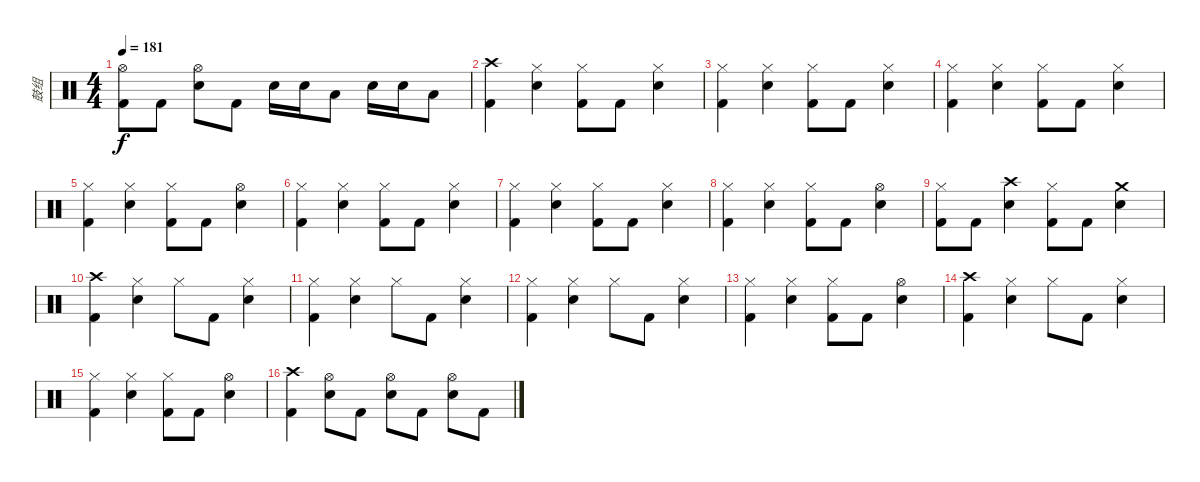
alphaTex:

\track ("鼓组" "鼓组") {instrument percussion}
\staff {score}
\articulation defaults
\ts (4 4)
\tempo 181
\clef neutral
\ks c
("Hi-Hat (open)" "Kick (hit) 2").8{dy f} "Kick (hit) 2".8 ("Hi-Hat (open)" "Snare (hit) 2").8 "Kick (hit) 2".8 "Snare (hit) 2".16 "Snare (hit) 2".16 "Low Tom (hit)".8 "Snare (hit) 2".16 "Snare (hit) 2".16 "Low Floor Tom (hit)".8 |
("Crash high (hit)" "Kick (hit) 2").4 ("Hi-Hat (closed)" "Snare (hit) 2").4 ("Hi-Hat (closed)" "Kick (hit) 2").8 "Kick (hit) 2".8 ("Hi-Hat (closed)" "Snare (hit) 2").4 |
("Hi-Hat (closed)" "Kick (hit) 2").4 ("Hi-Hat (closed)" "Snare (hit) 2").4 ("Hi-Hat (closed)" "Kick (hit) 2").8 "Kick (hit) 2".8 ("Hi-Hat (closed)" "Snare (hit) 2").4 |
("Hi-Hat (closed)" "Kick (hit) 2").4 ("Hi-Hat (closed)" "Snare (hit) 2").4 ("Hi-Hat (closed)" "Kick (hit) 2").8 "Kick (hit) 2".8 ("Hi-Hat (closed)" "Snare (hit) 2").4 |
("Hi-Hat (closed)" "Kick (hit) 2").4 ("Hi-Hat (closed)" "Snare (hit) 2").4 ("Hi-Hat (closed)" "Kick (hit) 2").8 "Kick (hit) 2".8 ("Hi-Hat (open)" "Snare (hit) 2").4 |
("Hi-Hat (closed)" "Kick (hit) 2").4 ("Hi-Hat (closed)" "Snare (hit) 2").4 ("Hi-Hat (closed)" "Kick (hit) 2").8 "Kick (hit) 2".8 ("Hi-Hat (closed)" "Snare (hit) 2").4 |
("Hi-Hat (closed)" "Kick (hit) 2").4 ("Hi-Hat (closed)" "Snare (hit) 2").4 ("Hi-Hat (closed)" "Kick (hit) 2").8 "Kick (hit) 2".8 ("Hi-Hat (closed)" "Snare (hit) 2").4 |
("Hi-Hat (closed)" "Kick (hit) 2").4 ("Hi-Hat (closed)" "Snare (hit) 2").4 ("Hi-Hat (closed)" "Kick (hit) 2").8 "Kick (hit) 2".8 ("Hi-Hat (open)" "Snare (hit) 2").4 |
("Hi-Hat (closed)" "Kick (hit) 2").8 "Kick (hit) 2".8 ("Crash high (hit)" "Snare (hit) 2").4 ("Hi-Hat (closed)" "Kick (hit) 2").8 "Kick (hit) 2".8 ("Crash medium (hit)" "Snare (hit) 2").4 |
("Crash high (hit)" "Kick (hit) 2").4 ("Hi-Hat (closed)" "Snare (hit) 2").4 "Hi-Hat (closed)".8 "Kick (hit) 2".8 ("Hi-Hat (closed)" "Snare (hit) 2").4 |
("Hi-Hat (closed)" "Kick (hit) 2").4 ("Hi-Hat (closed)" "Snare (hit) 2").4 "Hi-Hat (closed)".8 "Kick (hit) 2".8 ("Hi-Hat (closed)" "Snare (hit) 2").4 |
("Hi-Hat (closed)" "Kick (hit) 2").4 ("Hi-Hat (closed)" "Snare (hit) 2").4 "Hi-Hat (closed)".8 "Kick (hit) 2".8 ("Hi-Hat (closed)" "Snare (hit) 2").4 |
("Hi-Hat (closed)" "Kick (hit) 2").4 ("Hi-Hat (closed)" "Snare (hit) 2").4 ("Hi-Hat (closed)" "Kick (hit) 2").8 "Kick (hit) 2".8 ("Hi-Hat (open)" "Snare (hit) 2").4 |
("Crash high (hit)" "Kick (hit) 2").4 ("Hi-Hat (closed)" "Snare (hit) 2").4 "Hi-Hat (closed)".8 "Kick (hit) 2".8 ("Hi-Hat (closed)" "Snare (hit) 2").4 |
("Hi-Hat (closed)" "Kick (hit) 2").4 ("Hi-Hat (closed)" "Snare (hit) 2").4 ("Hi-Hat (closed)" "Kick (hit) 2").8 "Kick (hit) 2".8 ("Hi-Hat (open)" "Snare (hit) 2").4 |
("Crash high (hit)" "Kick (hit) 2").4 ("Hi-Hat (open)" "Snare (hit) 2").8 "Kick (hit) 2".8 ("Hi-Hat (open)" "Snare (hit) 2").8 "Kick (hit) 2".8 ("Hi-Hat (open)" "Snare (hit) 2").8 "Kick (hit) 2".8
